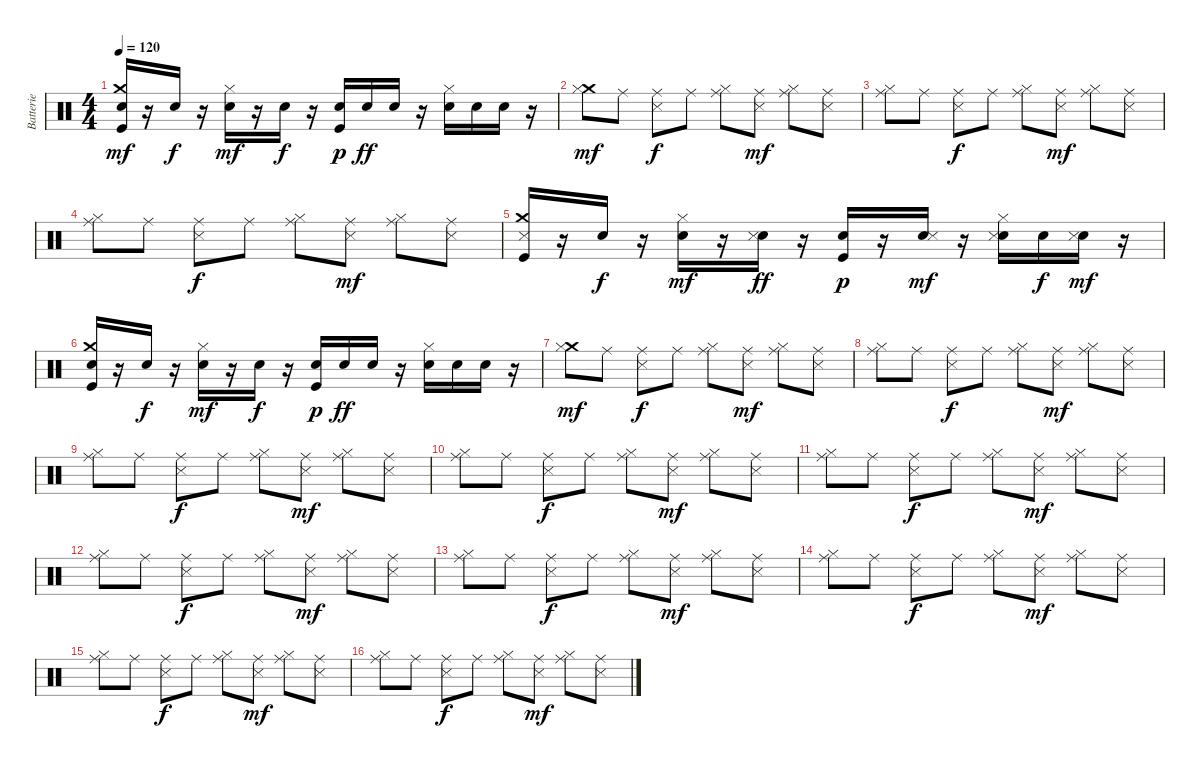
\track ("Batterie" "Batterie") {instrument percussion}
\staff {score}
\articulation defaults
\ts (4 4)
\tempo 120
\clef neutral
\ks c
("Kick (hit)" "Crash medium (hit)" "Snare (hit) 2").16{dy mf} r.16 "Snare (hit) 2".16{dy f} r.16 ("Hi-Hat (closed)" "Snare (hit) 2").16{dy mf} r.16 "Snare (hit) 2".16{dy f} r.16 ("Kick (hit)" "Snare (hit) 2").16{dy p} "Snare (hit) 2".16{dy ff} "Snare (hit) 2".16 r.16 ("Hi-Hat (closed)" "Snare (hit) 2").16 "Snare (hit) 2".16 "Snare (hit) 2".16 r.16 |
("Crash medium (hit)" "Hi-Hat (closed)").8{dy mf} "Ride (middle)".8 ("Ride (middle)" "Snare (side stick) 3").8{dy f} "Ride (middle)".8 ("Ride (middle)" "Hi-Hat (closed)").8 ("Ride (middle)" "Snare (side stick) 3").8{dy mf} ("Ride (middle)" "Hi-Hat (closed)").8 ("Ride (middle)" "Snare (side stick) 3").8 |
("Ride (middle)" "Hi-Hat (closed)").8 "Ride (middle)".8 ("Ride (middle)" "Snare (side stick) 3").8{dy f} "Ride (middle)".8 ("Ride (middle)" "Hi-Hat (closed)").8 ("Ride (middle)" "Snare (side stick) 3").8{dy mf} ("Ride (middle)" "Hi-Hat (closed)").8 ("Ride (middle)" "Snare (side stick) 3").8 |
("Ride (middle)" "Hi-Hat (closed)").8 "Ride (middle)".8 ("Ride (middle)" "Snare (side stick) 3").8{dy f} "Ride (middle)".8 ("Ride (middle)" "Hi-Hat (closed)").8 ("Ride (middle)" "Snare (side stick) 3").8{dy mf} ("Ride (middle)" "Hi-Hat (closed)").8 ("Ride (middle)" "Snare (side stick) 3").8 |
("Kick (hit)" "Crash medium (hit)" "Snare (side stick) 3").16 r.16 "Snare (hit) 2".16{dy f} r.16 ("Hi-Hat (closed)" "Snare (hit) 2").16{dy mf} r.16 ("Snare (hit) 2" "Snare (side stick) 3").16{dy ff} r.16 ("Kick (hit)" "Snare (hit) 2").16{dy p} r.16 ("Snare (hit) 2" "Snare (side stick) 3").16{dy mf} r.16 ("Hi-Hat (closed)" "Snare (hit) 2" "Snare (side stick) 3").16 "Snare (hit) 2".16{dy f} ("Snare (hit) 2" "Snare (side stick) 3").16{dy mf} r.16 |
("Kick (hit)" "Crash medium (hit)" "Snare (hit) 2").16 r.16 "Snare (hit) 2".16{dy f} r.16 ("Hi-Hat (closed)" "Snare (hit) 2").16{dy mf} r.16 "Snare (hit) 2".16{dy f} r.16 ("Kick (hit)" "Snare (hit) 2").16{dy p} "Snare (hit) 2".16{dy ff} "Snare (hit) 2".16 r.16 ("Hi-Hat (closed)" "Snare (hit) 2").16 "Snare (hit) 2".16 "Snare (hit) 2".16 r.16 |
("Crash medium (hit)" "Hi-Hat (closed)").8{dy mf} "Ride (middle)".8 ("Ride (middle)" "Snare (side stick) 3").8{dy f} "Ride (middle)".8 ("Ride (middle)" "Hi-Hat (closed)").8 ("Ride (middle)" "Snare (side stick) 3").8{dy mf} ("Ride (middle)" "Hi-Hat (closed)").8 ("Ride (middle)" "Snare (side stick) 3").8 |
("Ride (middle)" "Hi-Hat (closed)").8 "Ride (middle)".8 ("Ride (middle)" "Snare (side stick) 3").8{dy f} "Ride (middle)".8 ("Ride (middle)" "Hi-Hat (closed)").8 ("Ride (middle)" "Snare (side stick) 3").8{dy mf} ("Ride (middle)" "Hi-Hat (closed)").8 ("Ride (middle)" "Snare (side stick) 3").8 |
("Ride (middle)" "Hi-Hat (closed)").8 "Ride (middle)".8 ("Ride (middle)" "Snare (side stick) 3").8{dy f} "Ride (middle)".8 ("Ride (middle)" "Hi-Hat (closed)").8 ("Ride (middle)" "Snare (side stick) 3").8{dy mf} ("Ride (middle)" "Hi-Hat (closed)").8 ("Ride (middle)" "Snare (side stick) 3").8 |
("Ride (middle)" "Hi-Hat (closed)").8 "Ride (middle)".8 ("Ride (middle)" "Snare (side stick) 3").8{dy f} "Ride (middle)".8 ("Ride (middle)" "Hi-Hat (closed)").8 ("Ride (middle)" "Snare (side stick) 3").8{dy mf} ("Ride (middle)" "Hi-Hat (closed)").8 ("Ride (middle)" "Snare (side stick) 3").8 |
("Ride (middle)" "Hi-Hat (closed)").8 "Ride (middle)".8 ("Ride (middle)" "Snare (side stick) 3").8{dy f} "Ride (middle)".8 ("Ride (middle)" "Hi-Hat (closed)").8 ("Ride (middle)" "Snare (side stick) 3").8{dy mf} ("Ride (middle)" "Hi-Hat (closed)").8 ("Ride (middle)" "Snare (side stick) 3").8 |
("Ride (middle)" "Hi-Hat (closed)").8 "Ride (middle)".8 ("Ride (middle)" "Snare (side stick) 3").8{dy f} "Ride (middle)".8 ("Ride (middle)" "Hi-Hat (closed)").8 ("Ride (middle)" "Snare (side stick) 3").8{dy mf} ("Ride (middle)" "Hi-Hat (closed)").8 ("Ride (middle)" "Snare (side stick) 3").8 |
("Ride (middle)" "Hi-Hat (closed)").8 "Ride (middle)".8 ("Ride (middle)" "Snare (side stick) 3").8{dy f} "Ride (middle)".8 ("Ride (middle)" "Hi-Hat (closed)").8 ("Ride (middle)" "Snare (side stick) 3").8{dy mf} ("Ride (middle)" "Hi-Hat (closed)").8 ("Ride (middle)" "Snare (side stick) 3").8 |
("Ride (middle)" "Hi-Hat (closed)").8 "Ride (middle)".8 ("Ride (middle)" "Snare (side stick) 3").8{dy f} "Ride (middle)".8 ("Ride (middle)" "Hi-Hat (closed)").8 ("Ride (middle)" "Snare (side stick) 3").8{dy mf} ("Ride (middle)" "Hi-Hat (closed)").8 ("Ride (middle)" "Snare (side stick) 3").8 |
("Ride (middle)" "Hi-Hat (closed)").8 "Ride (middle)".8 ("Ride (middle)" "Snare (side stick) 3").8{dy f} "Ride (middle)".8 ("Ride (middle)" "Hi-Hat (closed)").8 ("Ride (middle)" "Snare (side stick) 3").8{dy mf} ("Ride (middle)" "Hi-Hat (closed)").8 ("Ride (middle)" "Snare (side stick) 3").8 |
("Ride (middle)" "Hi-Hat (closed)").8 "Ride (middle)".8 ("Ride (middle)" "Snare (side stick) 3").8{dy f} "Ride (middle)".8 ("Ride (middle)" "Hi-Hat (closed)").8 ("Ride (middle)" "Snare (side stick) 3").8{dy mf} ("Ride (middle)" "Hi-Hat (closed)").8 ("Ride (middle)" "Snare (side stick) 3").8
